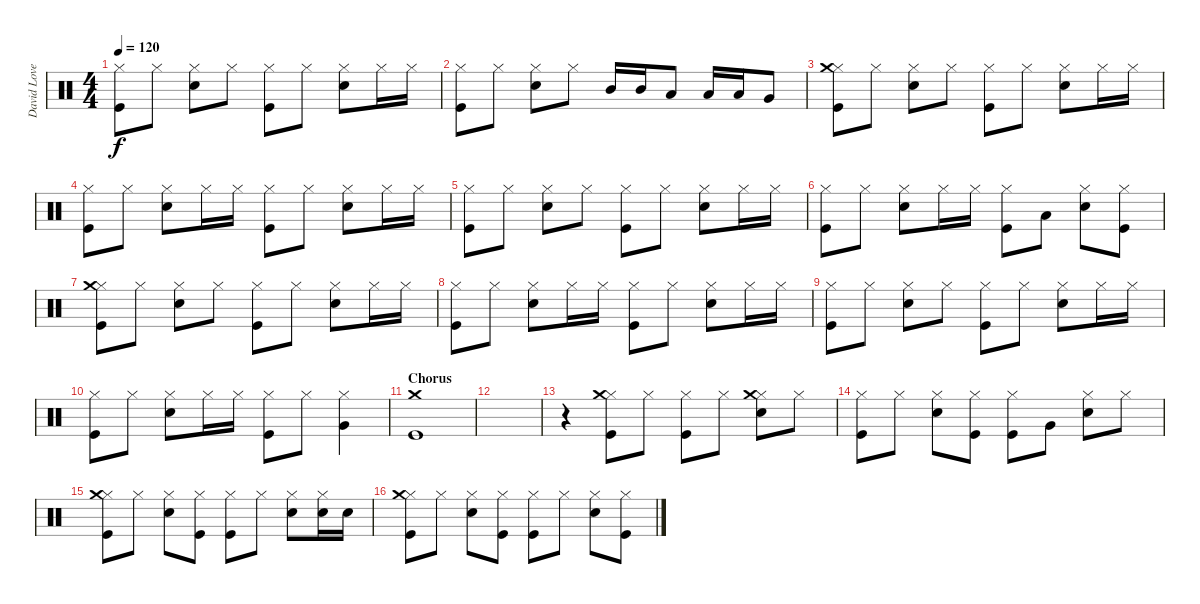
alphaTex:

\track ("David Lovering" "David Love") {instrument percussion}
\staff {score}
\articulation defaults
\ts (4 4)
\tempo 120
\clef neutral
\ks c
("Hi-Hat (closed)" "Kick (hit)").8{dy f} "Hi-Hat (closed)".8 ("Hi-Hat (closed)" "Snare (hit) 2").8 "Hi-Hat (closed)".8 ("Hi-Hat (closed)" "Kick (hit)").8 "Hi-Hat (closed)".8 ("Hi-Hat (closed)" "Snare (hit) 2").8 "Hi-Hat (closed)".16 "Hi-Hat (closed)".16 |
("Hi-Hat (closed)" "Kick (hit)").8 "Hi-Hat (closed)".8 ("Hi-Hat (closed)" "Snare (hit) 2").8 "Hi-Hat (closed)".8 "Mid Tom (hit)".16 "Mid Tom (hit)".16 "Low Tom (hit)".8 "Low Tom (hit)".16 "Low Tom (hit)".16 "Very Low Tom (hit)".8 |
\section ("" "")
("Hi-Hat (closed)" "Crash medium (hit)" "Kick (hit)").8 "Hi-Hat (closed)".8 ("Hi-Hat (closed)" "Snare (hit) 2").8 "Hi-Hat (closed)".8 ("Hi-Hat (closed)" "Kick (hit)").8 "Hi-Hat (closed)".8 ("Hi-Hat (closed)" "Snare (hit) 2").8 "Hi-Hat (closed)".16 "Hi-Hat (closed)".16 |
("Hi-Hat (closed)" "Kick (hit)").8 "Hi-Hat (closed)".8 ("Hi-Hat (closed)" "Snare (hit) 2").8 "Hi-Hat (closed)".16 "Hi-Hat (closed)".16 ("Hi-Hat (closed)" "Kick (hit)").8 "Hi-Hat (closed)".8 ("Hi-Hat (closed)" "Snare (hit) 2").8 "Hi-Hat (closed)".16 "Hi-Hat (closed)".16 |
("Hi-Hat (closed)" "Kick (hit)").8 "Hi-Hat (closed)".8 ("Hi-Hat (closed)" "Snare (hit) 2").8 "Hi-Hat (closed)".8 ("Hi-Hat (closed)" "Kick (hit)").8 "Hi-Hat (closed)".8 ("Hi-Hat (closed)" "Snare (hit) 2").8 "Hi-Hat (closed)".16 "Hi-Hat (closed)".16 |
("Hi-Hat (closed)" "Kick (hit)").8 "Hi-Hat (closed)".8 ("Hi-Hat (closed)" "Snare (hit) 2").8 "Hi-Hat (closed)".16 "Hi-Hat (closed)".16 ("Hi-Hat (closed)" "Kick (hit)").8 "Low Tom (hit)".8 ("Hi-Hat (closed)" "Snare (hit) 2").8 ("Hi-Hat (closed)" "Kick (hit)").8 |
("Hi-Hat (closed)" "Crash medium (hit)" "Kick (hit)").8 "Hi-Hat (closed)".8 ("Hi-Hat (closed)" "Snare (hit) 2").8 "Hi-Hat (closed)".8 ("Hi-Hat (closed)" "Kick (hit)").8 "Hi-Hat (closed)".8 ("Hi-Hat (closed)" "Snare (hit) 2").8 "Hi-Hat (closed)".16 "Hi-Hat (closed)".16 |
("Hi-Hat (closed)" "Kick (hit)").8 "Hi-Hat (closed)".8 ("Hi-Hat (closed)" "Snare (hit) 2").8 "Hi-Hat (closed)".16 "Hi-Hat (closed)".16 ("Hi-Hat (closed)" "Kick (hit)").8 "Hi-Hat (closed)".8 ("Hi-Hat (closed)" "Snare (hit) 2").8 "Hi-Hat (closed)".16 "Hi-Hat (closed)".16 |
("Hi-Hat (closed)" "Kick (hit)").8 "Hi-Hat (closed)".8 ("Hi-Hat (closed)" "Snare (hit) 2").8 "Hi-Hat (closed)".8 ("Hi-Hat (closed)" "Kick (hit)").8 "Hi-Hat (closed)".8 ("Hi-Hat (closed)" "Snare (hit) 2").8 "Hi-Hat (closed)".16 "Hi-Hat (closed)".16 |
("Hi-Hat (closed)" "Kick (hit)").8 "Hi-Hat (closed)".8 ("Hi-Hat (closed)" "Snare (hit) 2").8 "Hi-Hat (closed)".16 "Hi-Hat (closed)".16 ("Hi-Hat (closed)" "Kick (hit)").8 "Hi-Hat (closed)".8 ("Hi-Hat (closed)" "Very Low Tom (hit)").4 |
\section ("" "Chorus")
("Crash medium (hit)" "Kick (hit)").1 |
|
r.4 ("Hi-Hat (closed)" "Crash medium (hit)" "Kick (hit)").8 "Hi-Hat (closed)".8 ("Hi-Hat (closed)" "Kick (hit)").8 "Hi-Hat (closed)".8 ("Hi-Hat (closed)" "Crash medium (hit)" "Snare (hit) 2").8 "Hi-Hat (closed)".8 |
("Hi-Hat (closed)" "Kick (hit)").8 "Hi-Hat (closed)".8 ("Hi-Hat (closed)" "Snare (hit) 2").8 ("Hi-Hat (closed)" "Kick (hit)").8 ("Hi-Hat (closed)" "Kick (hit)").8 "Very Low Tom (hit)".8 ("Hi-Hat (closed)" "Snare (hit) 2").8 "Hi-Hat (closed)".8 |
("Hi-Hat (closed)" "Crash medium (hit)" "Kick (hit)").8 "Hi-Hat (closed)".8 ("Hi-Hat (closed)" "Snare (hit) 2").8 ("Hi-Hat (closed)" "Kick (hit)").8 ("Hi-Hat (closed)" "Kick (hit)").8 "Hi-Hat (closed)".8 ("Hi-Hat (closed)" "Snare (hit) 2").8 ("Hi-Hat (closed)" "Snare (hit) 2").16 "Snare (hit) 2".16 |
("Hi-Hat (closed)" "Crash medium (hit)" "Kick (hit)").8 "Hi-Hat (closed)".8 ("Hi-Hat (closed)" "Snare (hit) 2").8 ("Hi-Hat (closed)" "Kick (hit)").8 ("Hi-Hat (closed)" "Kick (hit)").8 "Hi-Hat (closed)".8 ("Hi-Hat (closed)" "Snare (hit) 2").8 ("Hi-Hat (closed)" "Kick (hit)").8
